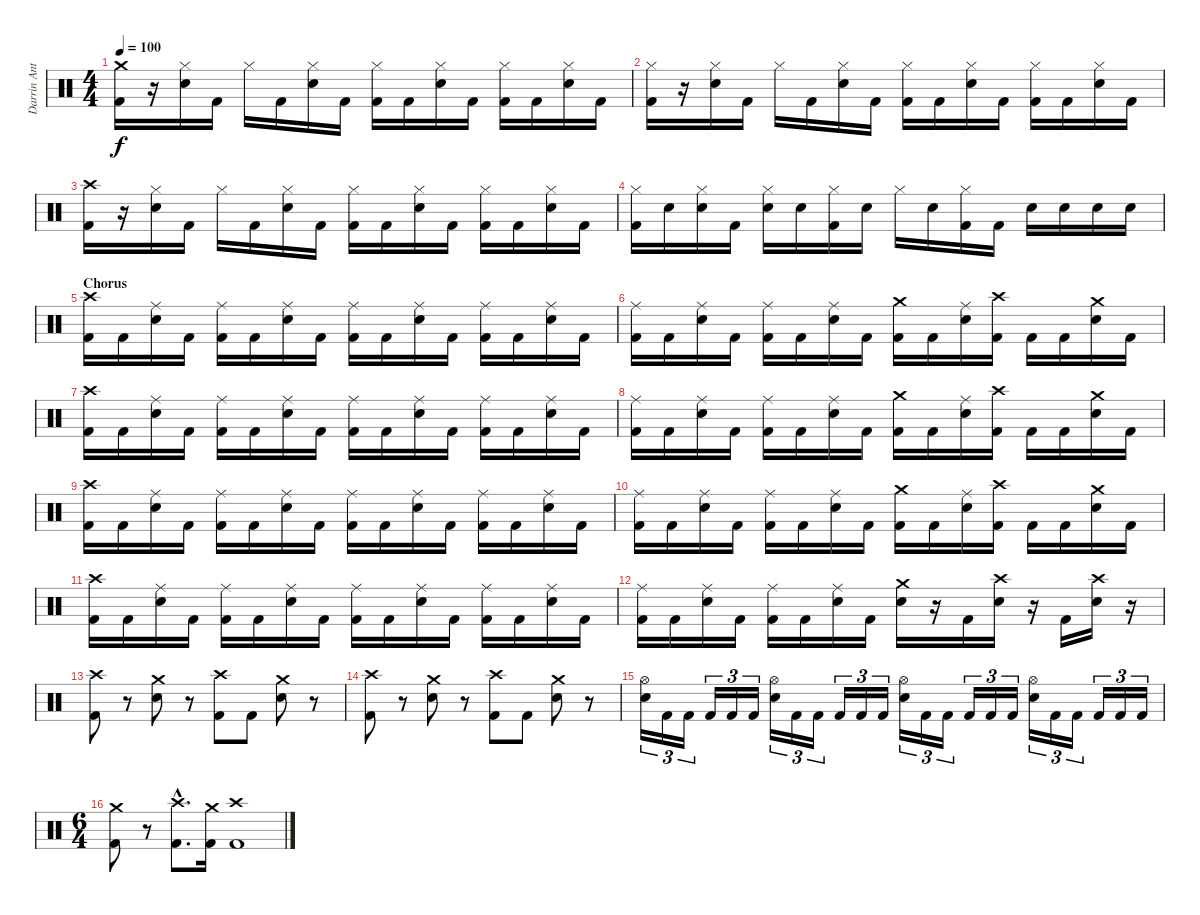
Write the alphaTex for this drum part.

\track ("Darrin Anthony" "Darrin Ant") {instrument percussion}
\staff {score}
\articulation defaults
\ts (4 4)
\tempo 100
\clef neutral
\ks c
("Crash medium (hit)" "Kick (hit) 2").16{dy f} r.16 ("Hi-Hat (closed)" "Electric Snare (hit)").16 "Kick (hit) 2".16 "Hi-Hat (closed)".16 "Kick (hit) 2".16 ("Hi-Hat (closed)" "Electric Snare (hit)").16 "Kick (hit) 2".16 ("Hi-Hat (closed)" "Kick (hit) 2").16 "Kick (hit) 2".16 ("Hi-Hat (closed)" "Electric Snare (hit)").16 "Kick (hit) 2".16 ("Hi-Hat (closed)" "Kick (hit) 2").16 "Kick (hit) 2".16 ("Hi-Hat (closed)" "Electric Snare (hit)").16 "Kick (hit) 2".16 |
("Hi-Hat (closed)" "Kick (hit) 2").16 r.16 ("Hi-Hat (closed)" "Electric Snare (hit)").16 "Kick (hit) 2".16 "Hi-Hat (closed)".16 "Kick (hit) 2".16 ("Hi-Hat (closed)" "Electric Snare (hit)").16 "Kick (hit) 2".16 ("Hi-Hat (closed)" "Kick (hit) 2").16 "Kick (hit) 2".16 ("Hi-Hat (closed)" "Electric Snare (hit)").16 "Kick (hit) 2".16 ("Hi-Hat (closed)" "Kick (hit) 2").16 "Kick (hit) 2".16 ("Hi-Hat (closed)" "Electric Snare (hit)").16 "Kick (hit) 2".16 |
("Crash high (hit)" "Kick (hit) 2").16 r.16 ("Hi-Hat (closed)" "Electric Snare (hit)").16 "Kick (hit) 2".16 "Hi-Hat (closed)".16 "Kick (hit) 2".16 ("Hi-Hat (closed)" "Electric Snare (hit)").16 "Kick (hit) 2".16 ("Hi-Hat (closed)" "Kick (hit) 2").16 "Kick (hit) 2".16 ("Hi-Hat (closed)" "Electric Snare (hit)").16 "Kick (hit) 2".16 ("Hi-Hat (closed)" "Kick (hit) 2").16 "Kick (hit) 2".16 ("Hi-Hat (closed)" "Electric Snare (hit)").16 "Kick (hit) 2".16 |
("Hi-Hat (closed)" "Kick (hit) 2").16 "Electric Snare (hit)".16 ("Hi-Hat (closed)" "Electric Snare (hit)").16 "Kick (hit) 2".16 ("Hi-Hat (closed)" "Electric Snare (hit)").16 "Electric Snare (hit)".16 ("Hi-Hat (closed)" "Kick (hit) 2").16 "Electric Snare (hit)".16 "Hi-Hat (closed)".16 "Electric Snare (hit)".16 ("Hi-Hat (closed)" "Kick (hit) 2").16 "Kick (hit) 2".16 "Electric Snare (hit)".16 "Electric Snare (hit)".16 "Electric Snare (hit)".16 "Electric Snare (hit)".16 |
\section ("" "Chorus")
("Crash high (hit)" "Kick (hit) 2").16 "Kick (hit) 2".16 ("Ride (middle)" "Electric Snare (hit)").16 "Kick (hit) 2".16 ("Ride (middle)" "Kick (hit) 2").16 "Kick (hit) 2".16 ("Ride (middle)" "Electric Snare (hit)").16 "Kick (hit) 2".16 ("Ride (middle)" "Kick (hit) 2").16 "Kick (hit) 2".16 ("Ride (middle)" "Electric Snare (hit)").16 "Kick (hit) 2".16 ("Ride (middle)" "Kick (hit) 2").16 "Kick (hit) 2".16 ("Ride (middle)" "Electric Snare (hit)").16 "Kick (hit) 2".16 |
("Ride (middle)" "Kick (hit) 2").16 "Kick (hit) 2".16 ("Ride (middle)" "Electric Snare (hit)").16 "Kick (hit) 2".16 ("Ride (middle)" "Kick (hit) 2").16 "Kick (hit) 2".16 ("Ride (middle)" "Electric Snare (hit)").16 "Kick (hit) 2".16 ("Crash medium (hit)" "Kick (hit) 2").16 "Kick (hit) 2".16 ("Ride (middle)" "Electric Snare (hit)").16 ("Crash high (hit)" "Kick (hit) 2").16 "Kick (hit) 2".16 "Kick (hit) 2".16 ("Crash medium (hit)" "Electric Snare (hit)").16 "Kick (hit) 2".16 |
("Crash high (hit)" "Kick (hit) 2").16 "Kick (hit) 2".16 ("Ride (middle)" "Electric Snare (hit)").16 "Kick (hit) 2".16 ("Ride (middle)" "Kick (hit) 2").16 "Kick (hit) 2".16 ("Ride (middle)" "Electric Snare (hit)").16 "Kick (hit) 2".16 ("Ride (middle)" "Kick (hit) 2").16 "Kick (hit) 2".16 ("Ride (middle)" "Electric Snare (hit)").16 "Kick (hit) 2".16 ("Ride (middle)" "Kick (hit) 2").16 "Kick (hit) 2".16 ("Ride (middle)" "Electric Snare (hit)").16 "Kick (hit) 2".16 |
("Ride (middle)" "Kick (hit) 2").16 "Kick (hit) 2".16 ("Ride (middle)" "Electric Snare (hit)").16 "Kick (hit) 2".16 ("Ride (middle)" "Kick (hit) 2").16 "Kick (hit) 2".16 ("Ride (middle)" "Electric Snare (hit)").16 "Kick (hit) 2".16 ("Crash medium (hit)" "Kick (hit) 2").16 "Kick (hit) 2".16 ("Ride (middle)" "Electric Snare (hit)").16 ("Crash high (hit)" "Kick (hit) 2").16 "Kick (hit) 2".16 "Kick (hit) 2".16 ("Crash medium (hit)" "Electric Snare (hit)").16 "Kick (hit) 2".16 |
("Crash high (hit)" "Kick (hit) 2").16 "Kick (hit) 2".16 ("Ride (middle)" "Electric Snare (hit)").16 "Kick (hit) 2".16 ("Ride (middle)" "Kick (hit) 2").16 "Kick (hit) 2".16 ("Ride (middle)" "Electric Snare (hit)").16 "Kick (hit) 2".16 ("Ride (middle)" "Kick (hit) 2").16 "Kick (hit) 2".16 ("Ride (middle)" "Electric Snare (hit)").16 "Kick (hit) 2".16 ("Ride (middle)" "Kick (hit) 2").16 "Kick (hit) 2".16 ("Ride (middle)" "Electric Snare (hit)").16 "Kick (hit) 2".16 |
("Ride (middle)" "Kick (hit) 2").16 "Kick (hit) 2".16 ("Ride (middle)" "Electric Snare (hit)").16 "Kick (hit) 2".16 ("Ride (middle)" "Kick (hit) 2").16 "Kick (hit) 2".16 ("Ride (middle)" "Electric Snare (hit)").16 "Kick (hit) 2".16 ("Crash medium (hit)" "Kick (hit) 2").16 "Kick (hit) 2".16 ("Ride (middle)" "Electric Snare (hit)").16 ("Crash high (hit)" "Kick (hit) 2").16 "Kick (hit) 2".16 "Kick (hit) 2".16 ("Crash medium (hit)" "Electric Snare (hit)").16 "Kick (hit) 2".16 |
("Crash high (hit)" "Kick (hit) 2").16 "Kick (hit) 2".16 ("Ride (middle)" "Electric Snare (hit)").16 "Kick (hit) 2".16 ("Ride (middle)" "Kick (hit) 2").16 "Kick (hit) 2".16 ("Ride (middle)" "Electric Snare (hit)").16 "Kick (hit) 2".16 ("Ride (middle)" "Kick (hit) 2").16 "Kick (hit) 2".16 ("Ride (middle)" "Electric Snare (hit)").16 "Kick (hit) 2".16 ("Ride (middle)" "Kick (hit) 2").16 "Kick (hit) 2".16 ("Ride (middle)" "Electric Snare (hit)").16 "Kick (hit) 2".16 |
("Ride (middle)" "Kick (hit) 2").16 "Kick (hit) 2".16 ("Ride (middle)" "Electric Snare (hit)").16 "Kick (hit) 2".16 ("Ride (middle)" "Kick (hit) 2").16 "Kick (hit) 2".16 ("Ride (middle)" "Electric Snare (hit)").16 "Kick (hit) 2".16 ("Crash medium (hit)" "Electric Snare (hit)").16 r.16 "Kick (hit) 2".16 ("Crash high (hit)" "Electric Snare (hit)").16 r.16 "Kick (hit) 2".16 ("Crash high (hit)" "Electric Snare (hit)").16 r.16 |
("Crash high (hit)" "Kick (hit) 2").8 r.8 ("Crash medium (hit)" "Electric Snare (hit)").8 r.8 ("Crash high (hit)" "Kick (hit) 2").8 "Kick (hit) 2".8 ("Crash medium (hit)" "Electric Snare (hit)").8 r.8 |
("Crash high (hit)" "Kick (hit) 2").8 r.8 ("Crash medium (hit)" "Electric Snare (hit)").8 r.8 ("Crash high (hit)" "Kick (hit) 2").8 "Kick (hit) 2".8 ("Crash medium (hit)" "Electric Snare (hit)").8 r.8 |
("Hi-Hat (open)" "Electric Snare (hit)").16{tu (3 2)} "Kick (hit) 2".16{tu (3 2)} "Kick (hit) 2".16{tu (3 2)} "Kick (hit) 2".16{tu (3 2)} "Kick (hit) 2".16{tu (3 2)} "Kick (hit) 2".16{tu (3 2)} ("Hi-Hat (open)" "Electric Snare (hit)").16{tu (3 2)} "Kick (hit) 2".16{tu (3 2)} "Kick (hit) 2".16{tu (3 2)} "Kick (hit) 2".16{tu (3 2)} "Kick (hit) 2".16{tu (3 2)} "Kick (hit) 2".16{tu (3 2)} ("Hi-Hat (open)" "Electric Snare (hit)").16{tu (3 2)} "Kick (hit) 2".16{tu (3 2)} "Kick (hit) 2".16{tu (3 2)} "Kick (hit) 2".16{tu (3 2)} "Kick (hit) 2".16{tu (3 2)} "Kick (hit) 2".16{tu (3 2)} ("Hi-Hat (open)" "Electric Snare (hit)").16{tu (3 2)} "Kick (hit) 2".16{tu (3 2)} "Kick (hit) 2".16{tu (3 2)} "Kick (hit) 2".16{tu (3 2)} "Kick (hit) 2".16{tu (3 2)} "Kick (hit) 2".16{tu (3 2)} |
\ts (6 4)
("Crash medium (hit)" "Kick (hit) 2").8 r.8 ("Crash high (hit)"{hac} "Kick (hit) 2"{hac}).8{d} ("Crash medium (hit)" "Kick (hit) 2").16 ("Crash high (hit)" "Kick (hit) 2").1
